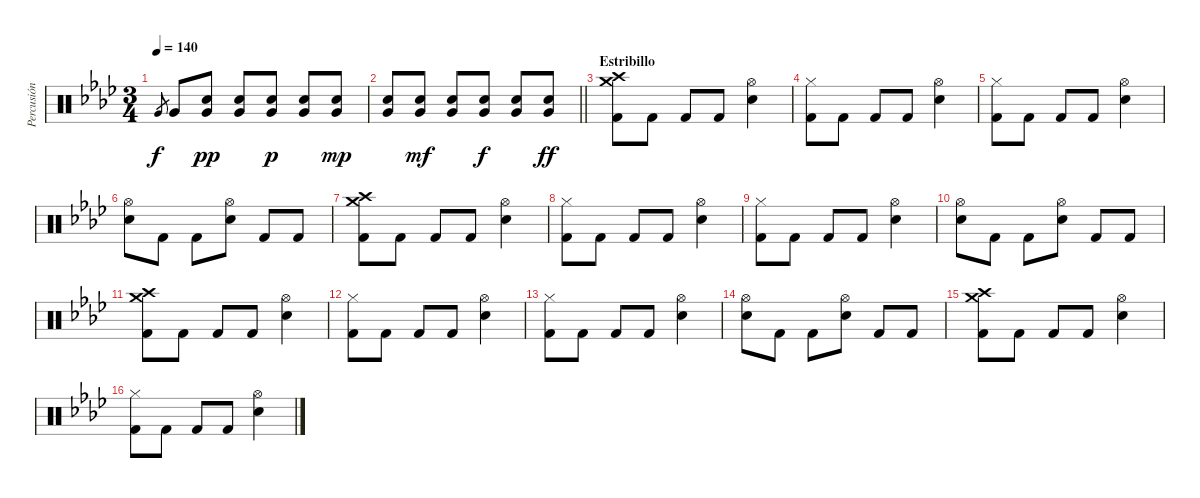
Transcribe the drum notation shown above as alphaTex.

\track ("Percusión" "Percusión") {instrument percussion}
\staff {score}
\articulation defaults
\ts (3 4)
\tempo 140
\clef neutral
\ks fminor "Very Low Tom (hit)".8{gr dy f} "Very Low Tom (hit)".8
("Snare (hit) 2" "Very Low Tom (hit)").8{dy pp} ("Snare (hit) 2" "Very Low Tom (hit)").8 ("Snare (hit) 2" "Very Low Tom (hit)").8{dy p} ("Snare (hit) 2" "Very Low Tom (hit)").8 ("Snare (hit) 2" "Very Low Tom (hit)").8{dy mp} |
\barLineRight lightlight
("Snare (hit) 2" "Very Low Tom (hit)").8 ("Snare (hit) 2" "Very Low Tom (hit)").8{dy mf} ("Snare (hit) 2" "Very Low Tom (hit)").8 ("Snare (hit) 2" "Very Low Tom (hit)").8{dy f} ("Snare (hit) 2" "Very Low Tom (hit)").8 ("Snare (hit) 2" "Very Low Tom (hit)").8{dy ff} |
\section ("" "Estribillo")
("Crash high (hit)" "Crash medium (hit)" "Kick (hit) 2").8 "Kick (hit) 2".8 "Kick (hit) 2".8 "Kick (hit) 2".8 ("Hi-Hat (open)" "Snare (hit) 2").4 |
("Hi-Hat (closed)" "Kick (hit) 2").8 "Kick (hit) 2".8 "Kick (hit) 2".8 "Kick (hit) 2".8 ("Hi-Hat (open)" "Snare (hit) 2").4 |
("Hi-Hat (closed)" "Kick (hit) 2").8 "Kick (hit) 2".8 "Kick (hit) 2".8 "Kick (hit) 2".8 ("Hi-Hat (open)" "Snare (hit) 2").4 |
("Hi-Hat (open)" "Snare (hit) 2").8 "Kick (hit) 2".8 "Kick (hit) 2".8 ("Hi-Hat (open)" "Snare (hit) 2").8 "Kick (hit) 2".8 "Kick (hit) 2".8 |
("Crash high (hit)" "Crash medium (hit)" "Kick (hit) 2").8 "Kick (hit) 2".8 "Kick (hit) 2".8 "Kick (hit) 2".8 ("Hi-Hat (open)" "Snare (hit) 2").4 |
("Hi-Hat (closed)" "Kick (hit) 2").8 "Kick (hit) 2".8 "Kick (hit) 2".8 "Kick (hit) 2".8 ("Hi-Hat (open)" "Snare (hit) 2").4 |
("Hi-Hat (closed)" "Kick (hit) 2").8 "Kick (hit) 2".8 "Kick (hit) 2".8 "Kick (hit) 2".8 ("Hi-Hat (open)" "Snare (hit) 2").4 |
("Hi-Hat (open)" "Snare (hit) 2").8 "Kick (hit) 2".8 "Kick (hit) 2".8 ("Hi-Hat (open)" "Snare (hit) 2").8 "Kick (hit) 2".8 "Kick (hit) 2".8 |
("Crash high (hit)" "Crash medium (hit)" "Kick (hit) 2").8 "Kick (hit) 2".8 "Kick (hit) 2".8 "Kick (hit) 2".8 ("Hi-Hat (open)" "Snare (hit) 2").4 |
("Hi-Hat (closed)" "Kick (hit) 2").8 "Kick (hit) 2".8 "Kick (hit) 2".8 "Kick (hit) 2".8 ("Hi-Hat (open)" "Snare (hit) 2").4 |
("Hi-Hat (closed)" "Kick (hit) 2").8 "Kick (hit) 2".8 "Kick (hit) 2".8 "Kick (hit) 2".8 ("Hi-Hat (open)" "Snare (hit) 2").4 |
("Hi-Hat (open)" "Snare (hit) 2").8 "Kick (hit) 2".8 "Kick (hit) 2".8 ("Hi-Hat (open)" "Snare (hit) 2").8 "Kick (hit) 2".8 "Kick (hit) 2".8 |
("Crash high (hit)" "Crash medium (hit)" "Kick (hit) 2").8 "Kick (hit) 2".8 "Kick (hit) 2".8 "Kick (hit) 2".8 ("Hi-Hat (open)" "Snare (hit) 2").4 |
("Hi-Hat (closed)" "Kick (hit) 2").8 "Kick (hit) 2".8 "Kick (hit) 2".8 "Kick (hit) 2".8 ("Hi-Hat (open)" "Snare (hit) 2").4
